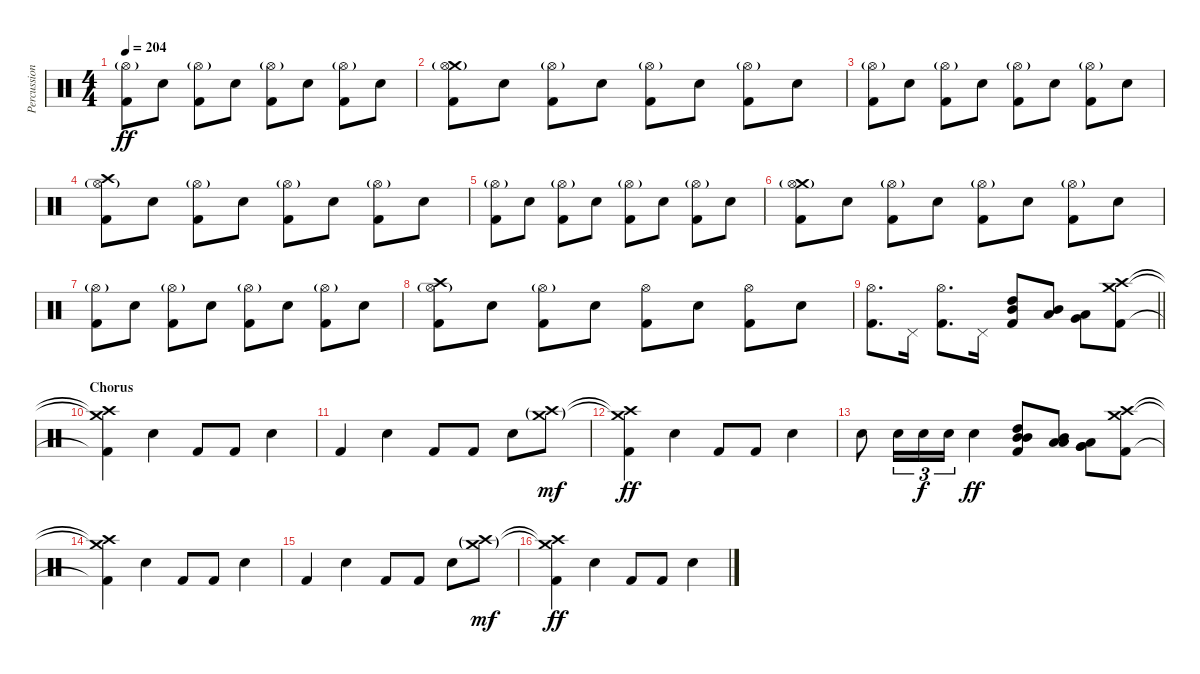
\track ("Percussion" "Percussion") {instrument percussion}
\staff {score}
\articulation defaults
\ts (4 4)
\tempo 204
\clef neutral
\ks c
("Hi-Hat (open)"{g} "Kick (hit) 2").8{dy ff} "Electric Snare (hit)".8 ("Hi-Hat (open)"{g} "Kick (hit) 2").8 "Electric Snare (hit)".8 ("Hi-Hat (open)"{g} "Kick (hit) 2").8 "Electric Snare (hit)".8 ("Hi-Hat (open)"{g} "Kick (hit) 2").8 "Electric Snare (hit)".8 |
("Crash medium (hit)" "Hi-Hat (open)"{g} "Kick (hit) 2").8 "Electric Snare (hit)".8 ("Hi-Hat (open)"{g} "Kick (hit) 2").8 "Electric Snare (hit)".8 ("Hi-Hat (open)"{g} "Kick (hit) 2").8 "Electric Snare (hit)".8 ("Hi-Hat (open)"{g} "Kick (hit) 2").8 "Electric Snare (hit)".8 |
("Hi-Hat (open)"{g} "Kick (hit) 2").8 "Electric Snare (hit)".8 ("Hi-Hat (open)"{g} "Kick (hit) 2").8 "Electric Snare (hit)".8 ("Hi-Hat (open)"{g} "Kick (hit) 2").8 "Electric Snare (hit)".8 ("Hi-Hat (open)"{g} "Kick (hit) 2").8 "Electric Snare (hit)".8 |
("Crash high (hit)" "Hi-Hat (open)"{g} "Kick (hit) 2").8 "Electric Snare (hit)".8 ("Hi-Hat (open)"{g} "Kick (hit) 2").8 "Electric Snare (hit)".8 ("Hi-Hat (open)"{g} "Kick (hit) 2").8 "Electric Snare (hit)".8 ("Hi-Hat (open)"{g} "Kick (hit) 2").8 "Electric Snare (hit)".8 |
("Hi-Hat (open)"{g} "Kick (hit) 2").8 "Electric Snare (hit)".8 ("Hi-Hat (open)"{g} "Kick (hit) 2").8 "Electric Snare (hit)".8 ("Hi-Hat (open)"{g} "Kick (hit) 2").8 "Electric Snare (hit)".8 ("Hi-Hat (open)"{g} "Kick (hit) 2").8 "Electric Snare (hit)".8 |
("Crash medium (hit)" "Hi-Hat (open)"{g} "Kick (hit) 2").8 "Electric Snare (hit)".8 ("Hi-Hat (open)"{g} "Kick (hit) 2").8 "Electric Snare (hit)".8 ("Hi-Hat (open)"{g} "Kick (hit) 2").8 "Electric Snare (hit)".8 ("Hi-Hat (open)"{g} "Kick (hit) 2").8 "Electric Snare (hit)".8 |
("Hi-Hat (open)"{g} "Kick (hit) 2").8 "Electric Snare (hit)".8 ("Hi-Hat (open)"{g} "Kick (hit) 2").8 "Electric Snare (hit)".8 ("Hi-Hat (open)"{g} "Kick (hit) 2").8 "Electric Snare (hit)".8 ("Hi-Hat (open)"{g} "Kick (hit) 2").8 "Electric Snare (hit)".8 |
("Crash high (hit)" "Hi-Hat (open)"{g} "Kick (hit) 2").8 "Electric Snare (hit)".8 ("Hi-Hat (open)"{g} "Kick (hit) 2").8 "Electric Snare (hit)".8 ("Hi-Hat (open)" "Kick (hit) 2").8 "Electric Snare (hit)".8 ("Hi-Hat (open)" "Kick (hit) 2").8 "Electric Snare (hit)".8 |
\barLineRight lightlight
("Hi-Hat (open)" "Kick (hit) 2").8{d} "Pedal Hi-Hat (hit)".16 ("Hi-Hat (open)" "Kick (hit) 2").8{d} "Pedal Hi-Hat (hit)".16 ("High Tom (hit)" "Mid Tom (hit)" "Kick (hit) 2").8 ("Mid Tom (hit)" "Low Tom (hit)").8 ("Low Tom (hit)" "Very Low Tom (hit)").8 ("Crash medium (hit)" "Crash high (hit)" "Kick (hit) 2").8 |
\section ("" "Chorus")
("Crash medium (hit)"{t} "Crash high (hit)"{t} "Kick (hit) 2"{t}).4 "Electric Snare (hit)".4 "Kick (hit) 2".8 "Kick (hit) 2".8 "Electric Snare (hit)".4 |
"Kick (hit) 2".4 "Electric Snare (hit)".4 "Kick (hit) 2".8 "Kick (hit) 2".8 "Electric Snare (hit)".8 ("Crash medium (hit)"{g} "Crash high (hit)"{g}).8{dy mf} |
("Crash medium (hit)"{t} "Crash high (hit)"{t} "Kick (hit) 2").4{dy ff} "Electric Snare (hit)".4 "Kick (hit) 2".8 "Kick (hit) 2".8 "Electric Snare (hit)".4 |
"Electric Snare (hit)".8 "Electric Snare (hit)".16{tu (3 2)} "Electric Snare (hit)".16{tu (3 2) dy f} "Electric Snare (hit)".16{tu (3 2)} "Electric Snare (hit)".4{dy ff} ("High Tom (hit)" "Mid Tom (hit)" "Mid Tom (hit)" "Kick (hit) 2").8 ("Mid Tom (hit)" "Low Tom (hit)" "Low Tom (hit)").8 ("Low Tom (hit)" "Very Low Tom (hit)" "Very Low Tom (hit)").8 ("Crash medium (hit)" "Crash high (hit)" "Kick (hit) 2").8 |
("Crash medium (hit)"{t} "Crash high (hit)"{t} "Kick (hit) 2"{t}).4 "Electric Snare (hit)".4 "Kick (hit) 2".8 "Kick (hit) 2".8 "Electric Snare (hit)".4 |
"Kick (hit) 2".4 "Electric Snare (hit)".4 "Kick (hit) 2".8 "Kick (hit) 2".8 "Electric Snare (hit)".8 ("Crash medium (hit)"{g} "Crash high (hit)"{g}).8{dy mf} |
("Crash medium (hit)"{t} "Crash high (hit)"{t} "Kick (hit) 2").4{dy ff} "Electric Snare (hit)".4 "Kick (hit) 2".8 "Kick (hit) 2".8 "Electric Snare (hit)".4
